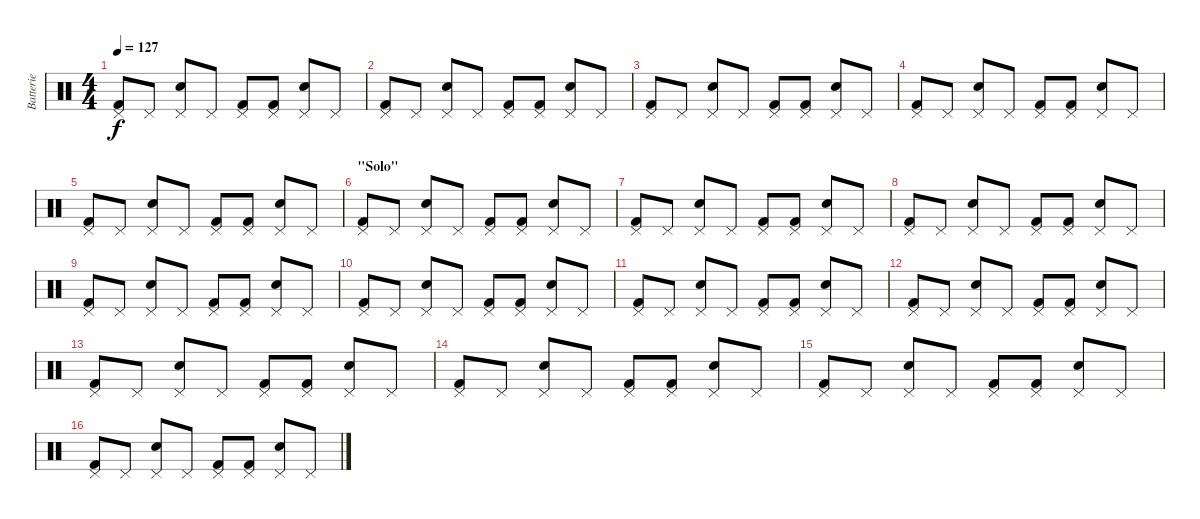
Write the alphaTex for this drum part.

\track ("Batterie" "Batterie") {instrument percussion}
\staff {score}
\articulation defaults
\ts (4 4)
\tempo 127
\clef neutral
\ks c
("Pedal Hi-Hat (hit)" "Kick (hit) 2").8{dy f} "Pedal Hi-Hat (hit)".8 ("Pedal Hi-Hat (hit)" "Electric Snare (hit)").8 "Pedal Hi-Hat (hit)".8 ("Pedal Hi-Hat (hit)" "Kick (hit) 2").8 ("Pedal Hi-Hat (hit)" "Kick (hit) 2").8 ("Pedal Hi-Hat (hit)" "Electric Snare (hit)").8 "Pedal Hi-Hat (hit)".8 |
("Pedal Hi-Hat (hit)" "Kick (hit) 2").8 "Pedal Hi-Hat (hit)".8 ("Pedal Hi-Hat (hit)" "Electric Snare (hit)").8 "Pedal Hi-Hat (hit)".8 ("Pedal Hi-Hat (hit)" "Kick (hit) 2").8 ("Pedal Hi-Hat (hit)" "Kick (hit) 2").8 ("Pedal Hi-Hat (hit)" "Electric Snare (hit)").8 "Pedal Hi-Hat (hit)".8 |
("Pedal Hi-Hat (hit)" "Kick (hit) 2").8 "Pedal Hi-Hat (hit)".8 ("Pedal Hi-Hat (hit)" "Electric Snare (hit)").8 "Pedal Hi-Hat (hit)".8 ("Pedal Hi-Hat (hit)" "Kick (hit) 2").8 ("Pedal Hi-Hat (hit)" "Kick (hit) 2").8 ("Pedal Hi-Hat (hit)" "Electric Snare (hit)").8 "Pedal Hi-Hat (hit)".8 |
("Pedal Hi-Hat (hit)" "Kick (hit) 2").8 "Pedal Hi-Hat (hit)".8 ("Pedal Hi-Hat (hit)" "Electric Snare (hit)").8 "Pedal Hi-Hat (hit)".8 ("Pedal Hi-Hat (hit)" "Kick (hit) 2").8 ("Pedal Hi-Hat (hit)" "Kick (hit) 2").8 ("Pedal Hi-Hat (hit)" "Electric Snare (hit)").8 "Pedal Hi-Hat (hit)".8 |
("Pedal Hi-Hat (hit)" "Kick (hit) 2").8 "Pedal Hi-Hat (hit)".8 ("Pedal Hi-Hat (hit)" "Electric Snare (hit)").8 "Pedal Hi-Hat (hit)".8 ("Pedal Hi-Hat (hit)" "Kick (hit) 2").8 ("Pedal Hi-Hat (hit)" "Kick (hit) 2").8 ("Pedal Hi-Hat (hit)" "Electric Snare (hit)").8 "Pedal Hi-Hat (hit)".8 |
\section ("" "\"Solo\"")
("Pedal Hi-Hat (hit)" "Kick (hit) 2").8 "Pedal Hi-Hat (hit)".8 ("Pedal Hi-Hat (hit)" "Electric Snare (hit)").8 "Pedal Hi-Hat (hit)".8 ("Pedal Hi-Hat (hit)" "Kick (hit) 2").8 ("Pedal Hi-Hat (hit)" "Kick (hit) 2").8 ("Pedal Hi-Hat (hit)" "Electric Snare (hit)").8 "Pedal Hi-Hat (hit)".8 |
("Pedal Hi-Hat (hit)" "Kick (hit) 2").8 "Pedal Hi-Hat (hit)".8 ("Pedal Hi-Hat (hit)" "Electric Snare (hit)").8 "Pedal Hi-Hat (hit)".8 ("Pedal Hi-Hat (hit)" "Kick (hit) 2").8 ("Pedal Hi-Hat (hit)" "Kick (hit) 2").8 ("Pedal Hi-Hat (hit)" "Electric Snare (hit)").8 "Pedal Hi-Hat (hit)".8 |
("Pedal Hi-Hat (hit)" "Kick (hit) 2").8 "Pedal Hi-Hat (hit)".8 ("Pedal Hi-Hat (hit)" "Electric Snare (hit)").8 "Pedal Hi-Hat (hit)".8 ("Pedal Hi-Hat (hit)" "Kick (hit) 2").8 ("Pedal Hi-Hat (hit)" "Kick (hit) 2").8 ("Pedal Hi-Hat (hit)" "Electric Snare (hit)").8 "Pedal Hi-Hat (hit)".8 |
("Pedal Hi-Hat (hit)" "Kick (hit) 2").8 "Pedal Hi-Hat (hit)".8 ("Pedal Hi-Hat (hit)" "Electric Snare (hit)").8 "Pedal Hi-Hat (hit)".8 ("Pedal Hi-Hat (hit)" "Kick (hit) 2").8 ("Pedal Hi-Hat (hit)" "Kick (hit) 2").8 ("Pedal Hi-Hat (hit)" "Electric Snare (hit)").8 "Pedal Hi-Hat (hit)".8 |
("Pedal Hi-Hat (hit)" "Kick (hit) 2").8 "Pedal Hi-Hat (hit)".8 ("Pedal Hi-Hat (hit)" "Electric Snare (hit)").8 "Pedal Hi-Hat (hit)".8 ("Pedal Hi-Hat (hit)" "Kick (hit) 2").8 ("Pedal Hi-Hat (hit)" "Kick (hit) 2").8 ("Pedal Hi-Hat (hit)" "Electric Snare (hit)").8 "Pedal Hi-Hat (hit)".8 |
("Pedal Hi-Hat (hit)" "Kick (hit) 2").8 "Pedal Hi-Hat (hit)".8 ("Pedal Hi-Hat (hit)" "Electric Snare (hit)").8 "Pedal Hi-Hat (hit)".8 ("Pedal Hi-Hat (hit)" "Kick (hit) 2").8 ("Pedal Hi-Hat (hit)" "Kick (hit) 2").8 ("Pedal Hi-Hat (hit)" "Electric Snare (hit)").8 "Pedal Hi-Hat (hit)".8 |
("Pedal Hi-Hat (hit)" "Kick (hit) 2").8 "Pedal Hi-Hat (hit)".8 ("Pedal Hi-Hat (hit)" "Electric Snare (hit)").8 "Pedal Hi-Hat (hit)".8 ("Pedal Hi-Hat (hit)" "Kick (hit) 2").8 ("Pedal Hi-Hat (hit)" "Kick (hit) 2").8 ("Pedal Hi-Hat (hit)" "Electric Snare (hit)").8 "Pedal Hi-Hat (hit)".8 |
("Pedal Hi-Hat (hit)" "Kick (hit) 2").8 "Pedal Hi-Hat (hit)".8 ("Pedal Hi-Hat (hit)" "Electric Snare (hit)").8 "Pedal Hi-Hat (hit)".8 ("Pedal Hi-Hat (hit)" "Kick (hit) 2").8 ("Pedal Hi-Hat (hit)" "Kick (hit) 2").8 ("Pedal Hi-Hat (hit)" "Electric Snare (hit)").8 "Pedal Hi-Hat (hit)".8 |
("Pedal Hi-Hat (hit)" "Kick (hit) 2").8 "Pedal Hi-Hat (hit)".8 ("Pedal Hi-Hat (hit)" "Electric Snare (hit)").8 "Pedal Hi-Hat (hit)".8 ("Pedal Hi-Hat (hit)" "Kick (hit) 2").8 ("Pedal Hi-Hat (hit)" "Kick (hit) 2").8 ("Pedal Hi-Hat (hit)" "Electric Snare (hit)").8 "Pedal Hi-Hat (hit)".8 |
("Pedal Hi-Hat (hit)" "Kick (hit) 2").8 "Pedal Hi-Hat (hit)".8 ("Pedal Hi-Hat (hit)" "Electric Snare (hit)").8 "Pedal Hi-Hat (hit)".8 ("Pedal Hi-Hat (hit)" "Kick (hit) 2").8 ("Pedal Hi-Hat (hit)" "Kick (hit) 2").8 ("Pedal Hi-Hat (hit)" "Electric Snare (hit)").8 "Pedal Hi-Hat (hit)".8 |
("Pedal Hi-Hat (hit)" "Kick (hit) 2").8 "Pedal Hi-Hat (hit)".8 ("Pedal Hi-Hat (hit)" "Electric Snare (hit)").8 "Pedal Hi-Hat (hit)".8 ("Pedal Hi-Hat (hit)" "Kick (hit) 2").8 ("Pedal Hi-Hat (hit)" "Kick (hit) 2").8 ("Pedal Hi-Hat (hit)" "Electric Snare (hit)").8 "Pedal Hi-Hat (hit)".8
